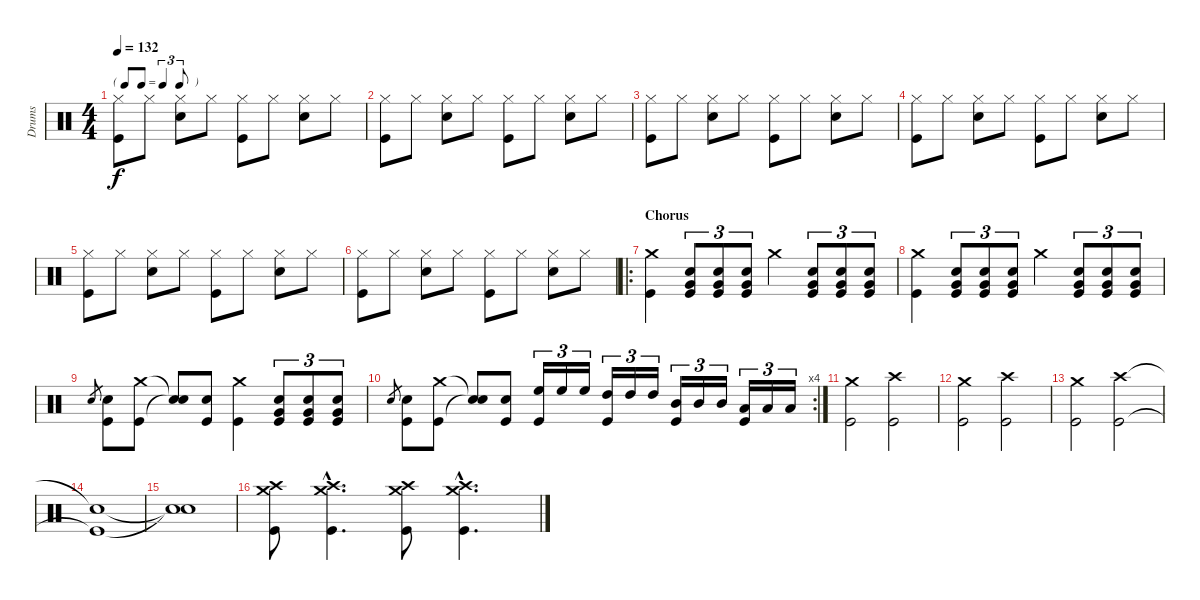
\track ("Drums" "Drums") {instrument percussion}
\staff {score}
\articulation defaults
\ts (4 4)
\tf triplet8th
\tempo 132
\clef neutral
\ks c
("Hi-Hat (closed)" "Kick (hit)").8{dy f} "Hi-Hat (closed)".8 ("Hi-Hat (closed)" "Snare (hit) 2").8 "Hi-Hat (closed)".8 ("Hi-Hat (closed)" "Kick (hit)").8 "Hi-Hat (closed)".8 ("Hi-Hat (closed)" "Snare (hit) 2").8 "Hi-Hat (closed)".8 |
("Hi-Hat (closed)" "Kick (hit)").8 "Hi-Hat (closed)".8 ("Hi-Hat (closed)" "Snare (hit) 2").8 "Hi-Hat (closed)".8 ("Hi-Hat (closed)" "Kick (hit)").8 "Hi-Hat (closed)".8 ("Hi-Hat (closed)" "Snare (hit) 2").8 "Hi-Hat (closed)".8 |
("Hi-Hat (closed)" "Kick (hit)").8 "Hi-Hat (closed)".8 ("Hi-Hat (closed)" "Snare (hit) 2").8 "Hi-Hat (closed)".8 ("Hi-Hat (closed)" "Kick (hit)").8 "Hi-Hat (closed)".8 ("Hi-Hat (closed)" "Snare (hit) 2").8 "Hi-Hat (closed)".8 |
("Hi-Hat (closed)" "Kick (hit)").8 "Hi-Hat (closed)".8 ("Hi-Hat (closed)" "Snare (hit) 2").8 "Hi-Hat (closed)".8 ("Hi-Hat (closed)" "Kick (hit)").8 "Hi-Hat (closed)".8 ("Hi-Hat (closed)" "Snare (hit) 2").8 "Hi-Hat (closed)".8 |
("Hi-Hat (closed)" "Kick (hit)").8 "Hi-Hat (closed)".8 ("Hi-Hat (closed)" "Snare (hit) 2").8 "Hi-Hat (closed)".8 ("Hi-Hat (closed)" "Kick (hit)").8 "Hi-Hat (closed)".8 ("Hi-Hat (closed)" "Snare (hit) 2").8 "Hi-Hat (closed)".8 |
("Hi-Hat (closed)" "Kick (hit)").8 "Hi-Hat (closed)".8 ("Hi-Hat (closed)" "Snare (hit) 2").8 "Hi-Hat (closed)".8 ("Hi-Hat (closed)" "Kick (hit)").8 "Hi-Hat (closed)".8 ("Hi-Hat (closed)" "Snare (hit) 2").8 "Hi-Hat (closed)".8 |
\ro
\section ("" "Chorus")
("Crash medium (hit)" "Kick (hit)").4 ("Very Low Tom (hit)" "Snare (hit) 2" "Kick (hit)").8{tu (3 2)} ("Very Low Tom (hit)" "Snare (hit) 2" "Kick (hit)").8{tu (3 2)} ("Very Low Tom (hit)" "Snare (hit) 2" "Kick (hit)").8{tu (3 2)} "Crash medium (hit)".4 ("Very Low Tom (hit)" "Snare (hit) 2" "Kick (hit)").8{tu (3 2)} ("Very Low Tom (hit)" "Snare (hit) 2" "Kick (hit)").8{tu (3 2)} ("Very Low Tom (hit)" "Snare (hit) 2" "Kick (hit)").8{tu (3 2)} |
("Crash medium (hit)" "Kick (hit)").4 ("Very Low Tom (hit)" "Snare (hit) 2" "Kick (hit)").8{tu (3 2)} ("Very Low Tom (hit)" "Snare (hit) 2" "Kick (hit)").8{tu (3 2)} ("Very Low Tom (hit)" "Snare (hit) 2" "Kick (hit)").8{tu (3 2)} "Crash medium (hit)".4 ("Very Low Tom (hit)" "Snare (hit) 2" "Kick (hit)").8{tu (3 2)} ("Very Low Tom (hit)" "Snare (hit) 2" "Kick (hit)").8{tu (3 2)} ("Very Low Tom (hit)" "Snare (hit) 2" "Kick (hit)").8{tu (3 2)} |
"Snare (hit) 2".8{gr} ("Snare (hit) 2" "Kick (hit)").8 ("Crash medium (hit)" "Kick (hit)").8 ("Snare (hit)"{t} "Snare (hit)"{t}).8 ("Snare (hit) 2" "Kick (hit)").8 ("Crash medium (hit)" "Kick (hit)").4 ("Very Low Tom (hit)" "Snare (hit) 2" "Kick (hit)").8{tu (3 2)} ("Very Low Tom (hit)" "Snare (hit) 2" "Kick (hit)").8{tu (3 2)} ("Very Low Tom (hit)" "Snare (hit) 2" "Kick (hit)").8{tu (3 2)} |
\rc 4 "Snare (hit) 2".8{gr}
("Snare (hit) 2" "Kick (hit)").8 ("Crash medium (hit)" "Kick (hit)").8 ("Snare (hit)"{t} "Snare (hit)"{t}).8 ("Snare (hit) 2" "Kick (hit)").8 ("High Floor Tom (hit)" "Kick (hit)").16{tu (3 2)} "High Floor Tom (hit)".16{tu (3 2)} "High Floor Tom (hit)".16{tu (3 2)} ("High Tom (hit)" "Kick (hit)").16{tu (3 2)} "High Tom (hit)".16{tu (3 2)} "High Tom (hit)".16{tu (3 2)} ("Mid Tom (hit)" "Kick (hit)").16{tu (3 2)} "Mid Tom (hit)".16{tu (3 2)} "Mid Tom (hit)".16{tu (3 2)} ("Low Tom (hit)" "Kick (hit)").16{tu (3 2)} "Low Tom (hit)".16{tu (3 2)} "Low Tom (hit)".16{tu (3 2)} |
("Crash medium (hit)" "Kick (hit)").2 ("Crash high (hit)" "Kick (hit)").2 |
("Crash medium (hit)" "Kick (hit)").2 ("Crash high (hit)" "Kick (hit)").2 |
("Crash medium (hit)" "Kick (hit)").2 ("Crash high (hit)" "Kick (hit)").2 |
("Snare (hit)"{t} "Kick (hit)"{t}).1 |
("Snare (hit)"{t} "Snare (hit)"{t}).1 |
("Crash high (hit)" "Crash medium (hit)" "Kick (hit)").8 ("Crash high (hit)"{hac} "Crash medium (hit)"{hac} "Kick (hit)"{hac}).4{d} ("Crash high (hit)" "Crash medium (hit)" "Kick (hit)").8 ("Crash high (hit)"{hac} "Crash medium (hit)"{hac} "Kick (hit)"{hac}).4{d}
